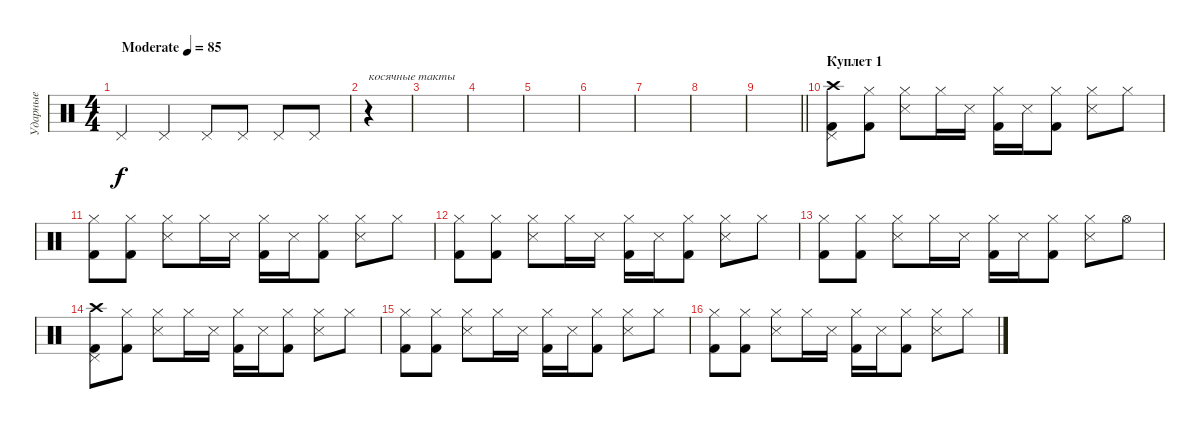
\track ("Ударные" "Ударные") {instrument percussion}
\staff {score}
\articulation defaults
\ts (4 4)
\tempo (85 "Moderate")
\clef neutral
\ks c "Pedal Hi-Hat (hit)".4{dy f} "Pedal Hi-Hat (hit)".4 "Pedal Hi-Hat (hit)".8 "Pedal Hi-Hat (hit)".8 "Pedal Hi-Hat (hit)".8 "Pedal Hi-Hat (hit)".8
|
r.4{txt "косячные такты"} |
|
|
|
|
|
|
\barLineRight lightlight
|
\section ("" "Куплет 1")
("Crash high (hit)" "Pedal Hi-Hat (hit)" "Kick (hit) 2").8 ("Hi-Hat (closed)" "Kick (hit) 2").8 ("Hi-Hat (closed)" "Snare (side stick) 3").8 "Hi-Hat (closed)".16 "Snare (side stick) 3".16 ("Hi-Hat (closed)" "Kick (hit) 2").16 "Snare (side stick) 3".16 ("Hi-Hat (closed)" "Kick (hit) 2").8 ("Hi-Hat (closed)" "Snare (side stick) 3").8 "Hi-Hat (closed)".8 |
("Hi-Hat (closed)" "Kick (hit) 2").8 ("Hi-Hat (closed)" "Kick (hit) 2").8 ("Hi-Hat (closed)" "Snare (side stick) 3").8 "Hi-Hat (closed)".16 "Snare (side stick) 3".16 ("Hi-Hat (closed)" "Kick (hit) 2").16 "Snare (side stick) 3".16 ("Hi-Hat (closed)" "Kick (hit) 2").8 ("Hi-Hat (closed)" "Snare (side stick) 3").8 "Hi-Hat (closed)".8 |
("Hi-Hat (closed)" "Kick (hit) 2").8 ("Hi-Hat (closed)" "Kick (hit) 2").8 ("Hi-Hat (closed)" "Snare (side stick) 3").8 "Hi-Hat (closed)".16 "Snare (side stick) 3".16 ("Hi-Hat (closed)" "Kick (hit) 2").16 "Snare (side stick) 3".16 ("Hi-Hat (closed)" "Kick (hit) 2").8 ("Hi-Hat (closed)" "Snare (side stick) 3").8 "Hi-Hat (closed)".8 |
("Hi-Hat (closed)" "Kick (hit) 2").8 ("Hi-Hat (closed)" "Kick (hit) 2").8 ("Hi-Hat (closed)" "Snare (side stick) 3").8 "Hi-Hat (closed)".16 "Snare (side stick) 3".16 ("Hi-Hat (closed)" "Kick (hit) 2").16 "Snare (side stick) 3".16 ("Hi-Hat (closed)" "Kick (hit) 2").8 ("Hi-Hat (closed)" "Snare (side stick) 3").8 "Hi-Hat (open)".8 |
("Crash high (hit)" "Pedal Hi-Hat (hit)" "Kick (hit) 2").8 ("Hi-Hat (closed)" "Kick (hit) 2").8 ("Hi-Hat (closed)" "Snare (side stick) 3").8 "Hi-Hat (closed)".16 "Snare (side stick) 3".16 ("Hi-Hat (closed)" "Kick (hit) 2").16 "Snare (side stick) 3".16 ("Hi-Hat (closed)" "Kick (hit) 2").8 ("Hi-Hat (closed)" "Snare (side stick) 3").8 "Hi-Hat (closed)".8 |
("Hi-Hat (closed)" "Kick (hit) 2").8 ("Hi-Hat (closed)" "Kick (hit) 2").8 ("Hi-Hat (closed)" "Snare (side stick) 3").8 "Hi-Hat (closed)".16 "Snare (side stick) 3".16 ("Hi-Hat (closed)" "Kick (hit) 2").16 "Snare (side stick) 3".16 ("Hi-Hat (closed)" "Kick (hit) 2").8 ("Hi-Hat (closed)" "Snare (side stick) 3").8 "Hi-Hat (closed)".8 |
("Hi-Hat (closed)" "Kick (hit) 2").8 ("Hi-Hat (closed)" "Kick (hit) 2").8 ("Hi-Hat (closed)" "Snare (side stick) 3").8 "Hi-Hat (closed)".16 "Snare (side stick) 3".16 ("Hi-Hat (closed)" "Kick (hit) 2").16 "Snare (side stick) 3".16 ("Hi-Hat (closed)" "Kick (hit) 2").8 ("Hi-Hat (closed)" "Snare (side stick) 3").8 "Hi-Hat (closed)".8
